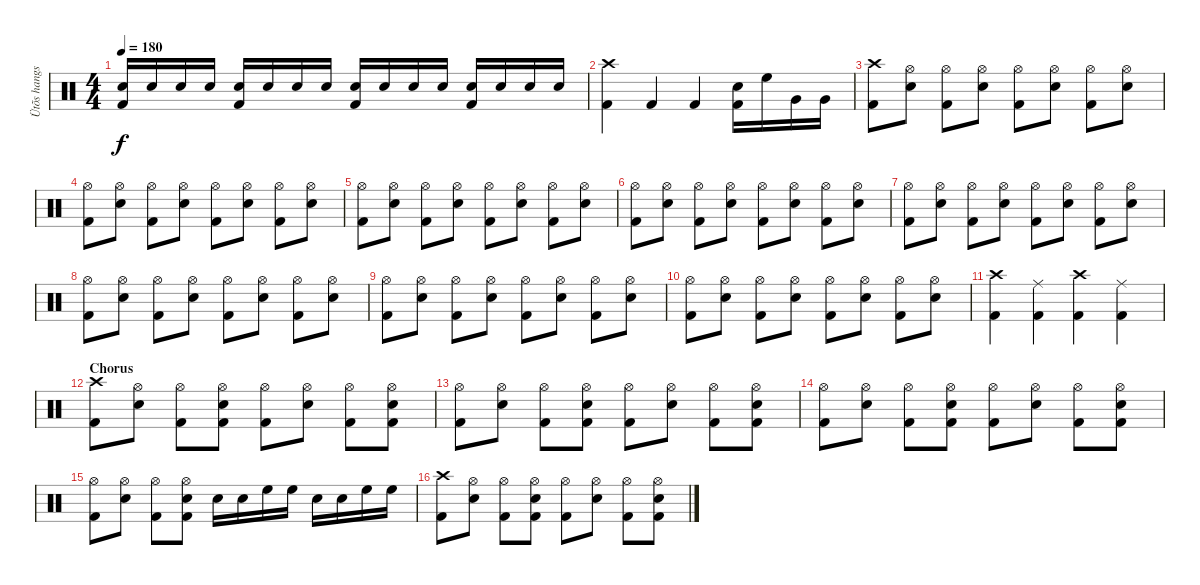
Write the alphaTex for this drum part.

\track ("Ütõs hangszer" "Ütõs hangs") {instrument percussion}
\staff {score}
\articulation defaults
\ts (4 4)
\tempo 180
\clef neutral
\ks c
("Snare (hit) 2" "Kick (hit) 2").16{dy f} "Electric Snare (hit)".16 "Electric Snare (hit)".16 "Electric Snare (hit)".16 ("Snare (hit) 2" "Kick (hit) 2").16 "Electric Snare (hit)".16 "Electric Snare (hit)".16 "Electric Snare (hit)".16 ("Snare (hit) 2" "Kick (hit) 2").16 "Electric Snare (hit)".16 "Electric Snare (hit)".16 "Electric Snare (hit)".16 ("Snare (hit) 2" "Kick (hit) 2").16 "Electric Snare (hit)".16 "Electric Snare (hit)".16 "Electric Snare (hit)".16 |
("Crash high (hit)" "Kick (hit) 2").4 "Kick (hit) 2".4 "Kick (hit) 2".4 ("Electric Snare (hit)" "Kick (hit) 2").16 "High Floor Tom (hit)".16 "Very Low Tom (hit)".16 "Very Low Tom (hit)".16 |
("Crash high (hit)" "Kick (hit) 2").8 ("Hi-Hat (open)" "Electric Snare (hit)").8 ("Hi-Hat (open)" "Kick (hit) 2").8 ("Hi-Hat (open)" "Electric Snare (hit)").8 ("Hi-Hat (open)" "Kick (hit) 2").8 ("Hi-Hat (open)" "Electric Snare (hit)").8 ("Hi-Hat (open)" "Kick (hit) 2").8 ("Hi-Hat (open)" "Electric Snare (hit)").8 |
("Hi-Hat (open)" "Kick (hit) 2").8 ("Hi-Hat (open)" "Electric Snare (hit)").8 ("Hi-Hat (open)" "Kick (hit) 2").8 ("Hi-Hat (open)" "Electric Snare (hit)").8 ("Hi-Hat (open)" "Kick (hit) 2").8 ("Hi-Hat (open)" "Electric Snare (hit)").8 ("Hi-Hat (open)" "Kick (hit) 2").8 ("Hi-Hat (open)" "Electric Snare (hit)").8 |
("Hi-Hat (open)" "Kick (hit) 2").8 ("Hi-Hat (open)" "Electric Snare (hit)").8 ("Hi-Hat (open)" "Kick (hit) 2").8 ("Hi-Hat (open)" "Electric Snare (hit)").8 ("Hi-Hat (open)" "Kick (hit) 2").8 ("Hi-Hat (open)" "Electric Snare (hit)").8 ("Hi-Hat (open)" "Kick (hit) 2").8 ("Hi-Hat (open)" "Electric Snare (hit)").8 |
("Hi-Hat (open)" "Kick (hit) 2").8 ("Hi-Hat (open)" "Electric Snare (hit)").8 ("Hi-Hat (open)" "Kick (hit) 2").8 ("Hi-Hat (open)" "Electric Snare (hit)").8 ("Hi-Hat (open)" "Kick (hit) 2").8 ("Hi-Hat (open)" "Electric Snare (hit)").8 ("Hi-Hat (open)" "Kick (hit) 2").8 ("Hi-Hat (open)" "Electric Snare (hit)").8 |
("Hi-Hat (open)" "Kick (hit) 2").8 ("Hi-Hat (open)" "Electric Snare (hit)").8 ("Hi-Hat (open)" "Kick (hit) 2").8 ("Hi-Hat (open)" "Electric Snare (hit)").8 ("Hi-Hat (open)" "Kick (hit) 2").8 ("Hi-Hat (open)" "Electric Snare (hit)").8 ("Hi-Hat (open)" "Kick (hit) 2").8 ("Hi-Hat (open)" "Electric Snare (hit)").8 |
("Hi-Hat (open)" "Kick (hit) 2").8 ("Hi-Hat (open)" "Electric Snare (hit)").8 ("Hi-Hat (open)" "Kick (hit) 2").8 ("Hi-Hat (open)" "Electric Snare (hit)").8 ("Hi-Hat (open)" "Kick (hit) 2").8 ("Hi-Hat (open)" "Electric Snare (hit)").8 ("Hi-Hat (open)" "Kick (hit) 2").8 ("Hi-Hat (open)" "Electric Snare (hit)").8 |
("Hi-Hat (open)" "Kick (hit) 2").8 ("Hi-Hat (open)" "Electric Snare (hit)").8 ("Hi-Hat (open)" "Kick (hit) 2").8 ("Hi-Hat (open)" "Electric Snare (hit)").8 ("Hi-Hat (open)" "Kick (hit) 2").8 ("Hi-Hat (open)" "Electric Snare (hit)").8 ("Hi-Hat (open)" "Kick (hit) 2").8 ("Hi-Hat (open)" "Electric Snare (hit)").8 |
("Hi-Hat (open)" "Kick (hit) 2").8 ("Hi-Hat (open)" "Electric Snare (hit)").8 ("Hi-Hat (open)" "Kick (hit) 2").8 ("Hi-Hat (open)" "Electric Snare (hit)").8 ("Hi-Hat (open)" "Kick (hit) 2").8 ("Hi-Hat (open)" "Electric Snare (hit)").8 ("Hi-Hat (open)" "Kick (hit) 2").8 ("Hi-Hat (open)" "Electric Snare (hit)").8 |
("Crash high (hit)" "Kick (hit) 2").4 ("Ride (middle)" "Kick (hit) 2").4 ("Crash high (hit)" "Kick (hit) 2").4 ("Ride (middle)" "Kick (hit) 2").4 |
\section ("" "Chorus")
("Crash high (hit)" "Kick (hit) 2").8 ("Hi-Hat (open)" "Electric Snare (hit)").8 ("Hi-Hat (open)" "Kick (hit) 2").8 ("Hi-Hat (open)" "Electric Snare (hit)" "Kick (hit) 2").8 ("Hi-Hat (open)" "Kick (hit) 2").8 ("Hi-Hat (open)" "Electric Snare (hit)").8 ("Hi-Hat (open)" "Kick (hit) 2").8 ("Hi-Hat (open)" "Electric Snare (hit)" "Kick (hit) 2").8 |
("Hi-Hat (open)" "Kick (hit) 2").8 ("Hi-Hat (open)" "Electric Snare (hit)").8 ("Hi-Hat (open)" "Kick (hit) 2").8 ("Hi-Hat (open)" "Electric Snare (hit)" "Kick (hit) 2").8 ("Hi-Hat (open)" "Kick (hit) 2").8 ("Hi-Hat (open)" "Electric Snare (hit)").8 ("Hi-Hat (open)" "Kick (hit) 2").8 ("Hi-Hat (open)" "Electric Snare (hit)" "Kick (hit) 2").8 |
("Hi-Hat (open)" "Kick (hit) 2").8 ("Hi-Hat (open)" "Electric Snare (hit)").8 ("Hi-Hat (open)" "Kick (hit) 2").8 ("Hi-Hat (open)" "Electric Snare (hit)" "Kick (hit) 2").8 ("Hi-Hat (open)" "Kick (hit) 2").8 ("Hi-Hat (open)" "Electric Snare (hit)").8 ("Hi-Hat (open)" "Kick (hit) 2").8 ("Hi-Hat (open)" "Electric Snare (hit)" "Kick (hit) 2").8 |
("Hi-Hat (open)" "Kick (hit) 2").8 ("Hi-Hat (open)" "Electric Snare (hit)").8 ("Hi-Hat (open)" "Kick (hit) 2").8 ("Hi-Hat (open)" "Electric Snare (hit)" "Kick (hit) 2").8 "Electric Snare (hit)".16 "Electric Snare (hit)".16 "High Floor Tom (hit)".16 "High Floor Tom (hit)".16 "Electric Snare (hit)".16 "Electric Snare (hit)".16 "High Floor Tom (hit)".16 "High Floor Tom (hit)".16 |
("Crash high (hit)" "Kick (hit) 2").8 ("Hi-Hat (open)" "Electric Snare (hit)").8 ("Hi-Hat (open)" "Kick (hit) 2").8 ("Hi-Hat (open)" "Electric Snare (hit)" "Kick (hit) 2").8 ("Hi-Hat (open)" "Kick (hit) 2").8 ("Hi-Hat (open)" "Electric Snare (hit)").8 ("Hi-Hat (open)" "Kick (hit) 2").8 ("Hi-Hat (open)" "Electric Snare (hit)" "Kick (hit) 2").8
